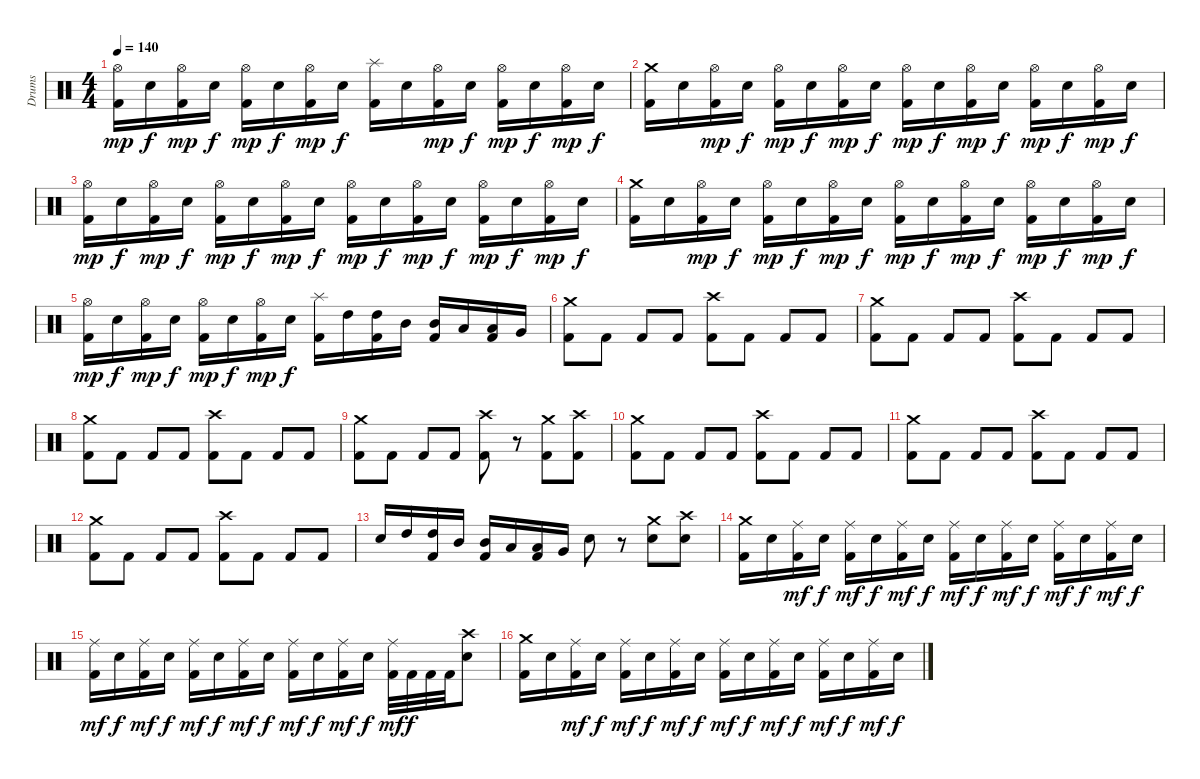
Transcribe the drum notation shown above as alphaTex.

\track ("Drums" "Drums") {instrument percussion}
\staff {score}
\articulation defaults
\ts (4 4)
\tempo 140
\clef neutral
\ks c
("Hi-Hat (open)" "Kick (hit) 2").16{dy mp} "Snare (hit) 2".16{dy f} ("Hi-Hat (open)" "Kick (hit) 2").16{dy mp} "Snare (hit) 2".16{dy f} ("Hi-Hat (open)" "Kick (hit) 2").16{dy mp} "Snare (hit) 2".16{dy f} ("Hi-Hat (open)" "Kick (hit) 2").16{dy mp} "Snare (hit) 2".16{dy f} ("Splash (hit)" "Kick (hit) 2").16 "Snare (hit) 2".16 ("Hi-Hat (open)" "Kick (hit) 2").16{dy mp} "Snare (hit) 2".16{dy f} ("Hi-Hat (open)" "Kick (hit) 2").16{dy mp} "Snare (hit) 2".16{dy f} ("Hi-Hat (open)" "Kick (hit) 2").16{dy mp} "Snare (hit) 2".16{dy f} |
("Crash medium (hit)" "Kick (hit) 2").16 "Snare (hit) 2".16 ("Hi-Hat (open)" "Kick (hit) 2").16{dy mp} "Snare (hit) 2".16{dy f} ("Hi-Hat (open)" "Kick (hit) 2").16{dy mp} "Snare (hit) 2".16{dy f} ("Hi-Hat (open)" "Kick (hit) 2").16{dy mp} "Snare (hit) 2".16{dy f} ("Hi-Hat (open)" "Kick (hit) 2").16{dy mp} "Snare (hit) 2".16{dy f} ("Hi-Hat (open)" "Kick (hit) 2").16{dy mp} "Snare (hit) 2".16{dy f} ("Hi-Hat (open)" "Kick (hit) 2").16{dy mp} "Snare (hit) 2".16{dy f} ("Hi-Hat (open)" "Kick (hit) 2").16{dy mp} "Snare (hit) 2".16{dy f} |
("Hi-Hat (open)" "Kick (hit) 2").16{dy mp} "Snare (hit) 2".16{dy f} ("Hi-Hat (open)" "Kick (hit) 2").16{dy mp} "Snare (hit) 2".16{dy f} ("Hi-Hat (open)" "Kick (hit) 2").16{dy mp} "Snare (hit) 2".16{dy f} ("Hi-Hat (open)" "Kick (hit) 2").16{dy mp} "Snare (hit) 2".16{dy f} ("Hi-Hat (open)" "Kick (hit) 2").16{dy mp} "Snare (hit) 2".16{dy f} ("Hi-Hat (open)" "Kick (hit) 2").16{dy mp} "Snare (hit) 2".16{dy f} ("Hi-Hat (open)" "Kick (hit) 2").16{dy mp} "Snare (hit) 2".16{dy f} ("Hi-Hat (open)" "Kick (hit) 2").16{dy mp} "Snare (hit) 2".16{dy f} |
("Crash medium (hit)" "Kick (hit) 2").16 "Snare (hit) 2".16 ("Hi-Hat (open)" "Kick (hit) 2").16{dy mp} "Snare (hit) 2".16{dy f} ("Hi-Hat (open)" "Kick (hit) 2").16{dy mp} "Snare (hit) 2".16{dy f} ("Hi-Hat (open)" "Kick (hit) 2").16{dy mp} "Snare (hit) 2".16{dy f} ("Hi-Hat (open)" "Kick (hit) 2").16{dy mp} "Snare (hit) 2".16{dy f} ("Hi-Hat (open)" "Kick (hit) 2").16{dy mp} "Snare (hit) 2".16{dy f} ("Hi-Hat (open)" "Kick (hit) 2").16{dy mp} "Snare (hit) 2".16{dy f} ("Hi-Hat (open)" "Kick (hit) 2").16{dy mp} "Snare (hit) 2".16{dy f} |
("Hi-Hat (open)" "Kick (hit) 2").16{dy mp} "Snare (hit) 2".16{dy f} ("Hi-Hat (open)" "Kick (hit) 2").16{dy mp} "Snare (hit) 2".16{dy f} ("Hi-Hat (open)" "Kick (hit) 2").16{dy mp} "Snare (hit) 2".16{dy f} ("Hi-Hat (open)" "Kick (hit) 2").16{dy mp} "Snare (hit) 2".16{dy f} ("Splash (hit)" "Kick (hit) 2").16 "High Tom (hit)".16 ("High Tom (hit)" "Kick (hit) 2").16 "Mid Tom (hit)".16 ("Mid Tom (hit)" "Kick (hit) 2").16 "Low Tom (hit)".16 ("Low Tom (hit)" "Kick (hit) 2").16 "Very Low Tom (hit)".16 |
("Crash medium (hit)" "Kick (hit) 2").8 "Kick (hit) 2".8 "Kick (hit) 2".8 "Kick (hit) 2".8 ("Crash high (hit)" "Kick (hit) 2").8 "Kick (hit) 2".8 "Kick (hit) 2".8 "Kick (hit) 2".8 |
("Crash medium (hit)" "Kick (hit) 2").8 "Kick (hit) 2".8 "Kick (hit) 2".8 "Kick (hit) 2".8 ("Crash high (hit)" "Kick (hit) 2").8 "Kick (hit) 2".8 "Kick (hit) 2".8 "Kick (hit) 2".8 |
("Crash medium (hit)" "Kick (hit) 2").8 "Kick (hit) 2".8 "Kick (hit) 2".8 "Kick (hit) 2".8 ("Crash high (hit)" "Kick (hit) 2").8 "Kick (hit) 2".8 "Kick (hit) 2".8 "Kick (hit) 2".8 |
("Crash medium (hit)" "Kick (hit) 2").8 "Kick (hit) 2".8 "Kick (hit) 2".8 "Kick (hit) 2".8 ("Crash high (hit)" "Kick (hit) 2").8 r.8 ("Crash medium (hit)" "Kick (hit) 2").8 ("Crash high (hit)" "Kick (hit) 2").8 |
("Crash medium (hit)" "Kick (hit) 2").8 "Kick (hit) 2".8 "Kick (hit) 2".8 "Kick (hit) 2".8 ("Crash high (hit)" "Kick (hit) 2").8 "Kick (hit) 2".8 "Kick (hit) 2".8 "Kick (hit) 2".8 |
("Crash medium (hit)" "Kick (hit) 2").8 "Kick (hit) 2".8 "Kick (hit) 2".8 "Kick (hit) 2".8 ("Crash high (hit)" "Kick (hit) 2").8 "Kick (hit) 2".8 "Kick (hit) 2".8 "Kick (hit) 2".8 |
("Crash medium (hit)" "Kick (hit) 2").8 "Kick (hit) 2".8 "Kick (hit) 2".8 "Kick (hit) 2".8 ("Crash high (hit)" "Kick (hit) 2").8 "Kick (hit) 2".8 "Kick (hit) 2".8 "Kick (hit) 2".8 |
"Snare (hit) 2".16 "High Tom (hit)".16 ("High Tom (hit)" "Kick (hit) 2").16 "Mid Tom (hit)".16 ("Mid Tom (hit)" "Kick (hit) 2").16 "Low Tom (hit)".16 ("Low Tom (hit)" "Kick (hit) 2").16 "Very Low Tom (hit)".16 "Snare (hit) 2".8 r.8 ("Crash medium (hit)" "Snare (hit) 2").8 ("Crash high (hit)" "Snare (hit) 2").8 |
("Crash medium (hit)" "Kick (hit) 2").16 "Snare (hit) 2".16 ("Ride (middle)" "Kick (hit) 2").16{dy mf} "Snare (hit) 2".16{dy f} ("Ride (middle)" "Kick (hit) 2").16{dy mf} "Snare (hit) 2".16{dy f} ("Ride (middle)" "Kick (hit) 2").16{dy mf} "Snare (hit) 2".16{dy f} ("Ride (middle)" "Kick (hit) 2").16{dy mf} "Snare (hit) 2".16{dy f} ("Ride (middle)" "Kick (hit) 2").16{dy mf} "Snare (hit) 2".16{dy f} ("Ride (middle)" "Kick (hit) 2").16{dy mf} "Snare (hit) 2".16{dy f} ("Ride (middle)" "Kick (hit) 2").16{dy mf} "Snare (hit) 2".16{dy f} |
("Ride (middle)" "Kick (hit) 2").16{dy mf} "Snare (hit) 2".16{dy f} ("Ride (middle)" "Kick (hit) 2").16{dy mf} "Snare (hit) 2".16{dy f} ("Ride (middle)" "Kick (hit) 2").16{dy mf} "Snare (hit) 2".16{dy f} ("Ride (middle)" "Kick (hit) 2").16{dy mf} "Snare (hit) 2".16{dy f} ("Ride (middle)" "Kick (hit) 2").16{dy mf} "Snare (hit) 2".16{dy f} ("Ride (middle)" "Kick (hit) 2").16{dy mf} "Snare (hit) 2".16{dy f} ("Ride (middle)" "Kick (hit) 2").32{dy mf} "Kick (hit) 2".32{dy f} "Kick (hit) 2".32 "Kick (hit) 2".32 ("Crash high (hit)" "Snare (hit) 2").8 |
("Crash medium (hit)" "Kick (hit) 2").16 "Snare (hit) 2".16 ("Ride (middle)" "Kick (hit) 2").16{dy mf} "Snare (hit) 2".16{dy f} ("Ride (middle)" "Kick (hit) 2").16{dy mf} "Snare (hit) 2".16{dy f} ("Ride (middle)" "Kick (hit) 2").16{dy mf} "Snare (hit) 2".16{dy f} ("Ride (middle)" "Kick (hit) 2").16{dy mf} "Snare (hit) 2".16{dy f} ("Ride (middle)" "Kick (hit) 2").16{dy mf} "Snare (hit) 2".16{dy f} ("Ride (middle)" "Kick (hit) 2").16{dy mf} "Snare (hit) 2".16{dy f} ("Ride (middle)" "Kick (hit) 2").16{dy mf} "Snare (hit) 2".16{dy f}
